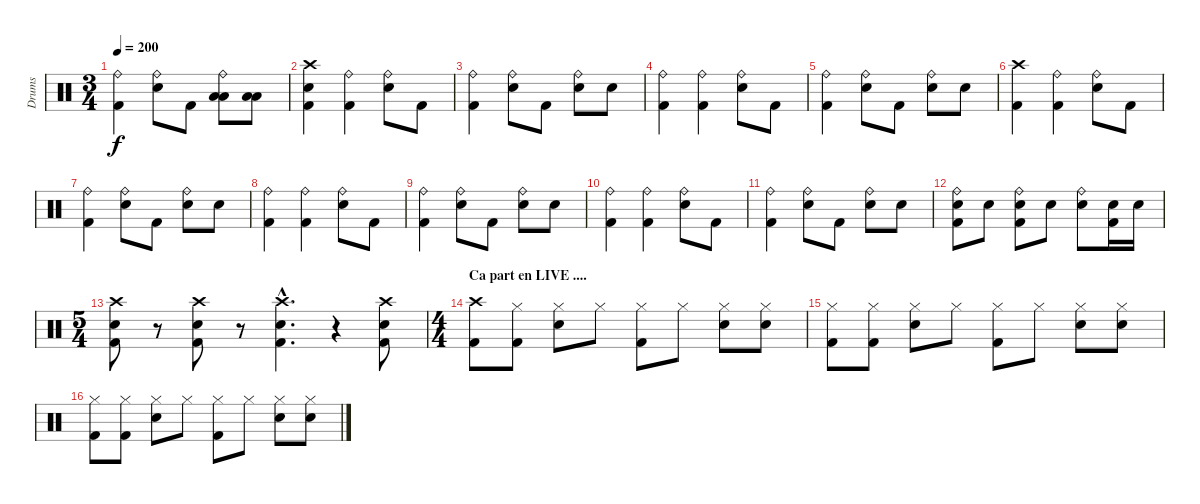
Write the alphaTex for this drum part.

\track ("Drums" "Drums") {instrument percussion}
\staff {score}
\articulation defaults
\ts (3 4)
\tempo 200
\clef neutral
\ks c
("Ride (bell)" "Kick (hit) 2").4{dy f} ("Ride (bell)" "Snare (hit) 2").8 "Kick (hit) 2".8 ("Ride (bell)" "Low Tom (hit)" "Low Floor Tom (hit)").8 ("Low Tom (hit)" "Low Floor Tom (hit)").8 |
("Crash high (hit)" "Snare (hit) 2" "Kick (hit) 2").4 ("Ride (bell)" "Kick (hit) 2").4 ("Ride (bell)" "Snare (hit) 2").8 "Kick (hit) 2".8 |
("Ride (bell)" "Kick (hit) 2").4 ("Ride (bell)" "Snare (hit) 2").8 "Kick (hit) 2".8 ("Ride (bell)" "Snare (hit) 2").8 "Snare (hit) 2".8 |
("Ride (bell)" "Kick (hit) 2").4 ("Ride (bell)" "Kick (hit) 2").4 ("Ride (bell)" "Snare (hit) 2").8 "Kick (hit) 2".8 |
("Ride (bell)" "Kick (hit) 2").4 ("Ride (bell)" "Snare (hit) 2").8 "Kick (hit) 2".8 ("Ride (bell)" "Snare (hit) 2").8 "Snare (hit) 2".8 |
\section ("" "")
("Crash high (hit)" "Kick (hit) 2").4 ("Ride (bell)" "Kick (hit) 2").4 ("Ride (bell)" "Snare (hit) 2").8 "Kick (hit) 2".8 |
("Ride (bell)" "Kick (hit) 2").4 ("Ride (bell)" "Snare (hit) 2").8 "Kick (hit) 2".8 ("Ride (bell)" "Snare (hit) 2").8 "Snare (hit) 2".8 |
("Ride (bell)" "Kick (hit) 2").4 ("Ride (bell)" "Kick (hit) 2").4 ("Ride (bell)" "Snare (hit) 2").8 "Kick (hit) 2".8 |
("Ride (bell)" "Kick (hit) 2").4 ("Ride (bell)" "Snare (hit) 2").8 "Kick (hit) 2".8 ("Ride (bell)" "Snare (hit) 2").8 "Snare (hit) 2".8 |
("Ride (bell)" "Kick (hit) 2").4 ("Ride (bell)" "Kick (hit) 2").4 ("Ride (bell)" "Snare (hit) 2").8 "Kick (hit) 2".8 |
("Ride (bell)" "Kick (hit) 2").4 ("Ride (bell)" "Snare (hit) 2").8 "Kick (hit) 2".8 ("Ride (bell)" "Snare (hit) 2").8 "Snare (hit) 2".8 |
("Ride (bell)" "Snare (hit) 2" "Kick (hit) 2").8 "Snare (hit) 2".8 ("Ride (bell)" "Snare (hit) 2" "Kick (hit) 2").8 "Snare (hit) 2".8 ("Ride (bell)" "Snare (hit) 2").8 ("Snare (hit) 2" "Kick (hit) 2").16 "Snare (hit) 2".16 |
\ts (5 4)
("Crash high (hit)" "Snare (hit) 2" "Kick (hit) 2").8 r.8 ("Crash high (hit)" "Snare (hit) 2" "Kick (hit) 2").8 r.8 ("Crash high (hit)"{hac} "Snare (hit) 2"{hac} "Kick (hit) 2"{hac}).4{d} r.4 ("Crash high (hit)" "Snare (hit) 2" "Kick (hit) 2").8 |
\ts (4 4)
\section ("" "Ca part en LIVE ....")
("Crash high (hit)" "Kick (hit) 2").8 ("Hi-Hat (closed)" "Kick (hit) 2").8 ("Hi-Hat (closed)" "Snare (hit) 2").8 "Hi-Hat (closed)".8 ("Hi-Hat (closed)" "Kick (hit) 2").8 "Hi-Hat (closed)".8 ("Hi-Hat (closed)" "Snare (hit) 2").8 ("Hi-Hat (closed)" "Snare (hit) 2").8 |
("Hi-Hat (closed)" "Kick (hit) 2").8 ("Hi-Hat (closed)" "Kick (hit) 2").8 ("Hi-Hat (closed)" "Snare (hit) 2").8 "Hi-Hat (closed)".8 ("Hi-Hat (closed)" "Kick (hit) 2").8 "Hi-Hat (closed)".8 ("Hi-Hat (closed)" "Snare (hit) 2").8 ("Hi-Hat (closed)" "Snare (hit) 2").8 |
("Hi-Hat (closed)" "Kick (hit) 2").8 ("Hi-Hat (closed)" "Kick (hit) 2").8 ("Hi-Hat (closed)" "Snare (hit) 2").8 "Hi-Hat (closed)".8 ("Hi-Hat (closed)" "Kick (hit) 2").8 "Hi-Hat (closed)".8 ("Hi-Hat (closed)" "Snare (hit) 2").8 ("Hi-Hat (closed)" "Snare (hit) 2").8
